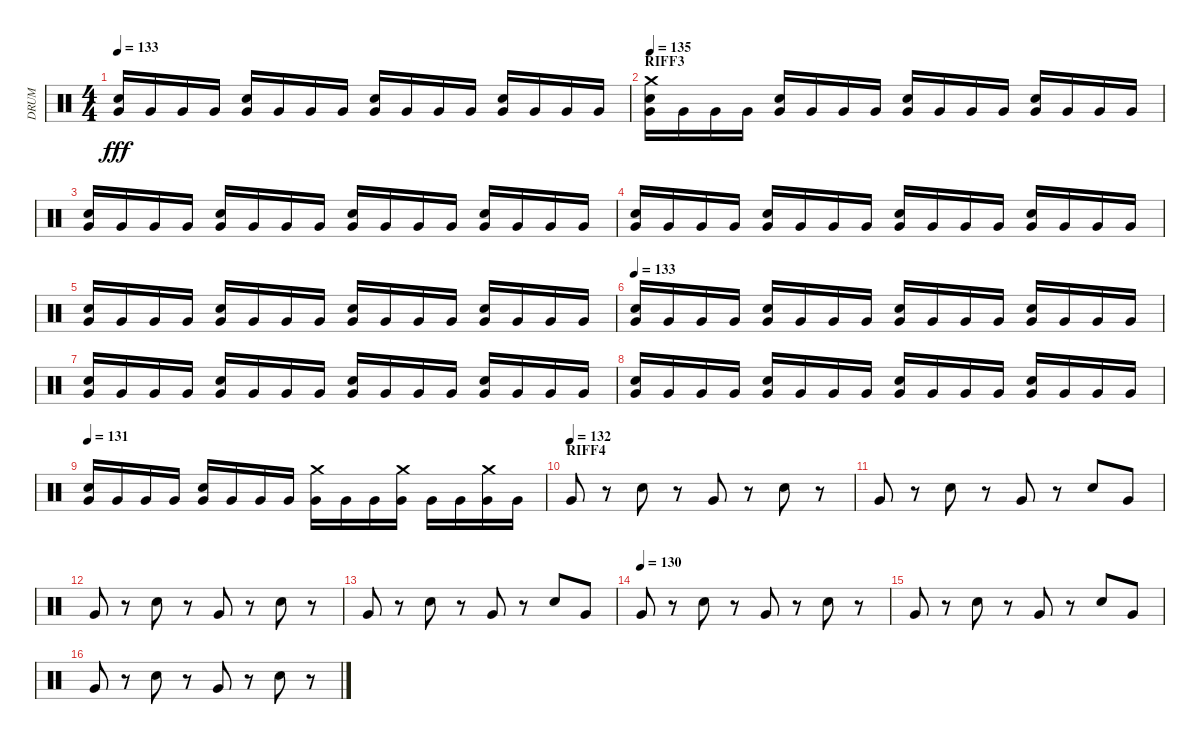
\track ("DRUM" "DRUM") {instrument percussion}
\staff {score}
\articulation defaults
\ts (4 4)
\tempo 133
\clef neutral
\ks c
("Very Low Tom (hit)" "Electric Snare (hit)").16{dy fff} "Very Low Tom (hit)".16 "Very Low Tom (hit)".16 "Very Low Tom (hit)".16 ("Very Low Tom (hit)" "Electric Snare (hit)").16 "Very Low Tom (hit)".16 "Very Low Tom (hit)".16 "Very Low Tom (hit)".16 ("Very Low Tom (hit)" "Electric Snare (hit)").16 "Very Low Tom (hit)".16 "Very Low Tom (hit)".16 "Very Low Tom (hit)".16 ("Very Low Tom (hit)" "Electric Snare (hit)").16 "Very Low Tom (hit)".16 "Very Low Tom (hit)".16 "Very Low Tom (hit)".16 |
\section ("" "RIFF3")
\tempo 135
("Very Low Tom (hit)" "Electric Snare (hit)" "Crash medium (hit)").16 "Very Low Tom (hit)".16 "Very Low Tom (hit)".16 "Very Low Tom (hit)".16 ("Very Low Tom (hit)" "Electric Snare (hit)").16 "Very Low Tom (hit)".16 "Very Low Tom (hit)".16 "Very Low Tom (hit)".16 ("Very Low Tom (hit)" "Electric Snare (hit)").16 "Very Low Tom (hit)".16 "Very Low Tom (hit)".16 "Very Low Tom (hit)".16 ("Very Low Tom (hit)" "Electric Snare (hit)").16 "Very Low Tom (hit)".16 "Very Low Tom (hit)".16 "Very Low Tom (hit)".16 |
("Very Low Tom (hit)" "Electric Snare (hit)").16 "Very Low Tom (hit)".16 "Very Low Tom (hit)".16 "Very Low Tom (hit)".16 ("Very Low Tom (hit)" "Electric Snare (hit)").16 "Very Low Tom (hit)".16 "Very Low Tom (hit)".16 "Very Low Tom (hit)".16 ("Very Low Tom (hit)" "Electric Snare (hit)").16 "Very Low Tom (hit)".16 "Very Low Tom (hit)".16 "Very Low Tom (hit)".16 ("Very Low Tom (hit)" "Electric Snare (hit)").16 "Very Low Tom (hit)".16 "Very Low Tom (hit)".16 "Very Low Tom (hit)".16 |
("Very Low Tom (hit)" "Electric Snare (hit)").16 "Very Low Tom (hit)".16 "Very Low Tom (hit)".16 "Very Low Tom (hit)".16 ("Very Low Tom (hit)" "Electric Snare (hit)").16 "Very Low Tom (hit)".16 "Very Low Tom (hit)".16 "Very Low Tom (hit)".16 ("Very Low Tom (hit)" "Electric Snare (hit)").16 "Very Low Tom (hit)".16 "Very Low Tom (hit)".16 "Very Low Tom (hit)".16 ("Very Low Tom (hit)" "Electric Snare (hit)").16 "Very Low Tom (hit)".16 "Very Low Tom (hit)".16 "Very Low Tom (hit)".16 |
("Very Low Tom (hit)" "Electric Snare (hit)").16 "Very Low Tom (hit)".16 "Very Low Tom (hit)".16 "Very Low Tom (hit)".16 ("Very Low Tom (hit)" "Electric Snare (hit)").16 "Very Low Tom (hit)".16 "Very Low Tom (hit)".16 "Very Low Tom (hit)".16 ("Very Low Tom (hit)" "Electric Snare (hit)").16 "Very Low Tom (hit)".16 "Very Low Tom (hit)".16 "Very Low Tom (hit)".16 ("Very Low Tom (hit)" "Electric Snare (hit)").16 "Very Low Tom (hit)".16 "Very Low Tom (hit)".16 "Very Low Tom (hit)".16 |
\tempo 133
("Very Low Tom (hit)" "Electric Snare (hit)").16 "Very Low Tom (hit)".16 "Very Low Tom (hit)".16 "Very Low Tom (hit)".16 ("Very Low Tom (hit)" "Electric Snare (hit)").16 "Very Low Tom (hit)".16 "Very Low Tom (hit)".16 "Very Low Tom (hit)".16 ("Very Low Tom (hit)" "Electric Snare (hit)").16 "Very Low Tom (hit)".16 "Very Low Tom (hit)".16 "Very Low Tom (hit)".16 ("Very Low Tom (hit)" "Electric Snare (hit)").16 "Very Low Tom (hit)".16 "Very Low Tom (hit)".16 "Very Low Tom (hit)".16 |
("Very Low Tom (hit)" "Electric Snare (hit)").16 "Very Low Tom (hit)".16 "Very Low Tom (hit)".16 "Very Low Tom (hit)".16 ("Very Low Tom (hit)" "Electric Snare (hit)").16 "Very Low Tom (hit)".16 "Very Low Tom (hit)".16 "Very Low Tom (hit)".16 ("Very Low Tom (hit)" "Electric Snare (hit)").16 "Very Low Tom (hit)".16 "Very Low Tom (hit)".16 "Very Low Tom (hit)".16 ("Very Low Tom (hit)" "Electric Snare (hit)").16 "Very Low Tom (hit)".16 "Very Low Tom (hit)".16 "Very Low Tom (hit)".16 |
("Very Low Tom (hit)" "Electric Snare (hit)").16 "Very Low Tom (hit)".16 "Very Low Tom (hit)".16 "Very Low Tom (hit)".16 ("Very Low Tom (hit)" "Electric Snare (hit)").16 "Very Low Tom (hit)".16 "Very Low Tom (hit)".16 "Very Low Tom (hit)".16 ("Very Low Tom (hit)" "Electric Snare (hit)").16 "Very Low Tom (hit)".16 "Very Low Tom (hit)".16 "Very Low Tom (hit)".16 ("Very Low Tom (hit)" "Electric Snare (hit)").16 "Very Low Tom (hit)".16 "Very Low Tom (hit)".16 "Very Low Tom (hit)".16 |
\tempo 131
("Very Low Tom (hit)" "Electric Snare (hit)").16 "Very Low Tom (hit)".16 "Very Low Tom (hit)".16 "Very Low Tom (hit)".16 ("Very Low Tom (hit)" "Electric Snare (hit)").16 "Very Low Tom (hit)".16 "Very Low Tom (hit)".16 "Very Low Tom (hit)".16 ("Very Low Tom (hit)" "Crash medium (hit)").16 "Very Low Tom (hit)".16 "Very Low Tom (hit)".16 ("Very Low Tom (hit)" "Crash medium (hit)").16 "Very Low Tom (hit)".16 "Very Low Tom (hit)".16 ("Very Low Tom (hit)" "Crash medium (hit)").16 "Very Low Tom (hit)".16 |
\section ("" "RIFF4")
\tempo (132)
"Very Low Tom (hit)".8 r.8 "Electric Snare (hit)".8 r.8 "Very Low Tom (hit)".8 r.8 "Electric Snare (hit)".8 r.8 |
"Very Low Tom (hit)".8 r.8 "Electric Snare (hit)".8 r.8 "Very Low Tom (hit)".8 r.8 "Electric Snare (hit)".8 "Very Low Tom (hit)".8 |
"Very Low Tom (hit)".8 r.8 "Electric Snare (hit)".8 r.8 "Very Low Tom (hit)".8 r.8 "Electric Snare (hit)".8 r.8 |
"Very Low Tom (hit)".8 r.8 "Electric Snare (hit)".8 r.8 "Very Low Tom (hit)".8 r.8 "Electric Snare (hit)".8 "Very Low Tom (hit)".8 |
\tempo (130)
"Very Low Tom (hit)".8 r.8 "Electric Snare (hit)".8 r.8 "Very Low Tom (hit)".8 r.8 "Electric Snare (hit)".8 r.8 |
"Very Low Tom (hit)".8 r.8 "Electric Snare (hit)".8 r.8 "Very Low Tom (hit)".8 r.8 "Electric Snare (hit)".8 "Very Low Tom (hit)".8 |
"Very Low Tom (hit)".8 r.8 "Electric Snare (hit)".8 r.8 "Very Low Tom (hit)".8 r.8 "Electric Snare (hit)".8 r.8
